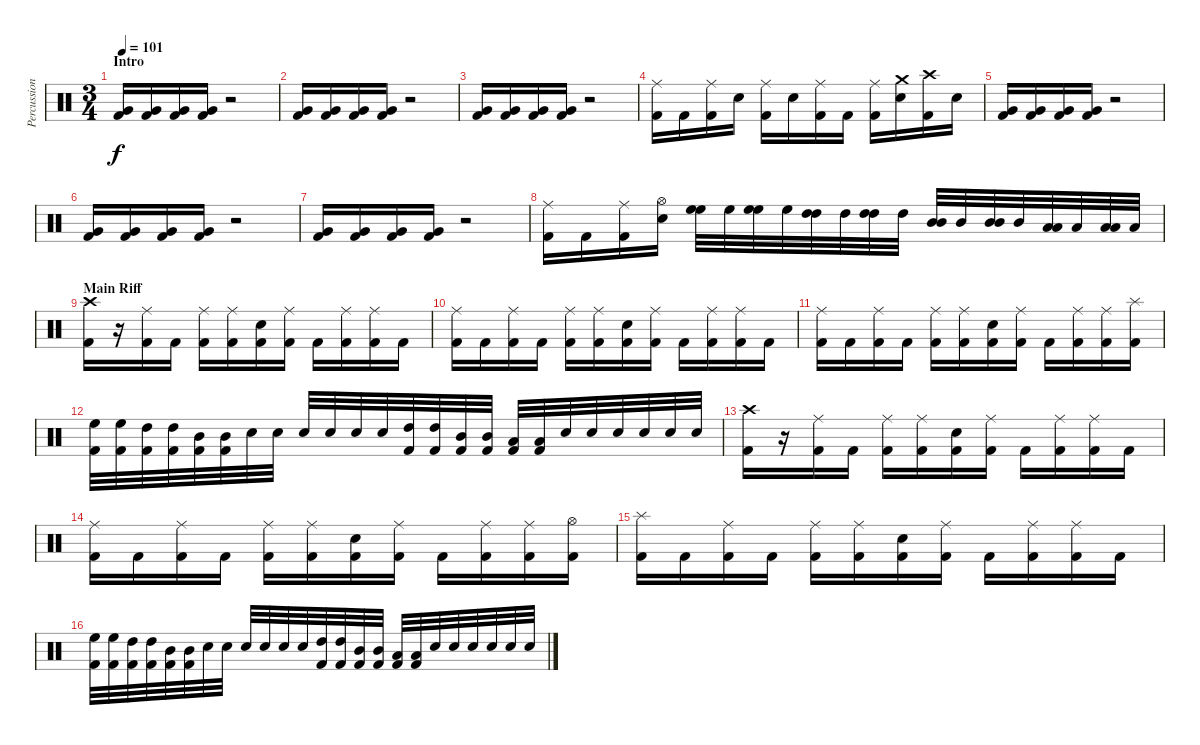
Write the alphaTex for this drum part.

\track ("Percussion" "Percussion") {instrument percussion}
\staff {score}
\articulation defaults
\ts (3 4)
\section ("" "Intro")
\tempo 101
\clef neutral
\ks c
("Very Low Tom (hit)" "Kick (hit) 2").16{dy f} ("Very Low Tom (hit)" "Kick (hit) 2").16 ("Very Low Tom (hit)" "Kick (hit) 2").16 ("Very Low Tom (hit)" "Kick (hit) 2").16 r.2 |
("Very Low Tom (hit)" "Kick (hit) 2").16 ("Very Low Tom (hit)" "Kick (hit) 2").16 ("Very Low Tom (hit)" "Kick (hit) 2").16 ("Very Low Tom (hit)" "Kick (hit) 2").16 r.2 |
("Very Low Tom (hit)" "Kick (hit) 2").16 ("Very Low Tom (hit)" "Kick (hit) 2").16 ("Very Low Tom (hit)" "Kick (hit) 2").16 ("Very Low Tom (hit)" "Kick (hit) 2").16 r.2 |
("Ride (middle)" "Kick (hit) 2").16 "Kick (hit) 2".16 ("Ride (middle)" "Kick (hit) 2").16 "Electric Snare (hit)".16 ("Ride (middle)" "Kick (hit) 2").16 "Electric Snare (hit)".16 ("Ride (middle)" "Kick (hit) 2").16 "Kick (hit) 2".16 ("Ride (middle)" "Kick (hit) 2").16 ("Crash medium (hit)" "Electric Snare (hit)").16 ("Crash high (hit)" "Kick (hit) 2").16 "Electric Snare (hit)".16 |
("Very Low Tom (hit)" "Kick (hit) 2").16 ("Very Low Tom (hit)" "Kick (hit) 2").16 ("Very Low Tom (hit)" "Kick (hit) 2").16 ("Very Low Tom (hit)" "Kick (hit) 2").16 r.2 |
("Very Low Tom (hit)" "Kick (hit) 2").16 ("Very Low Tom (hit)" "Kick (hit) 2").16 ("Very Low Tom (hit)" "Kick (hit) 2").16 ("Very Low Tom (hit)" "Kick (hit) 2").16 r.2 |
("Very Low Tom (hit)" "Kick (hit) 2").16 ("Very Low Tom (hit)" "Kick (hit) 2").16 ("Very Low Tom (hit)" "Kick (hit) 2").16 ("Very Low Tom (hit)" "Kick (hit) 2").16 r.2 |
("Ride (middle)" "Kick (hit) 2").16 "Kick (hit) 2".16 ("Ride (middle)" "Kick (hit) 2").16 ("Hi-Hat (open)" "Electric Snare (hit)").16 ("High Floor Tom (hit)" "High Floor Tom (hit)").32 "High Floor Tom (hit)".32 ("High Floor Tom (hit)" "High Floor Tom (hit)").32 "High Floor Tom (hit)".32 ("High Tom (hit)" "High Tom (hit)").32 "High Tom (hit)".32 ("High Tom (hit)" "High Tom (hit)").32 "High Tom (hit)".32 ("Mid Tom (hit)" "Mid Tom (hit)").32 "Mid Tom (hit)".32 ("Mid Tom (hit)" "Mid Tom (hit)").32 "Mid Tom (hit)".32 ("Low Tom (hit)" "Low Tom (hit)").32 "Low Tom (hit)".32 ("Low Tom (hit)" "Low Tom (hit)").32 "Low Tom (hit)".32 |
\section ("" "Main Riff")
("Crash high (hit)" "Kick (hit) 2").16 r.16 ("Ride (middle)" "Kick (hit) 2").16 "Kick (hit) 2".16 ("Ride (middle)" "Kick (hit) 2").16 ("Ride (middle)" "Kick (hit) 2").16 ("Electric Snare (hit)" "Kick (hit) 2").16 ("Ride (middle)" "Kick (hit) 2").16 "Kick (hit) 2".16 ("Ride (middle)" "Kick (hit) 2").16 ("Ride (middle)" "Kick (hit) 2").16 "Kick (hit) 2".16 |
("Ride (middle)" "Kick (hit) 2").16 "Kick (hit) 2".16 ("Ride (middle)" "Kick (hit) 2").16 "Kick (hit) 2".16 ("Ride (middle)" "Kick (hit) 2").16 ("Ride (middle)" "Kick (hit) 2").16 ("Electric Snare (hit)" "Kick (hit) 2").16 ("Ride (middle)" "Kick (hit) 2").16 "Kick (hit) 2".16 ("Ride (middle)" "Kick (hit) 2").16 ("Ride (middle)" "Kick (hit) 2").16 "Kick (hit) 2".16 |
("Ride (middle)" "Kick (hit) 2").16 "Kick (hit) 2".16 ("Ride (middle)" "Kick (hit) 2").16 "Kick (hit) 2".16 ("Ride (middle)" "Kick (hit) 2").16 ("Ride (middle)" "Kick (hit) 2").16 ("Electric Snare (hit)" "Kick (hit) 2").16 ("Ride (middle)" "Kick (hit) 2").16 "Kick (hit) 2".16 ("Ride (middle)" "Kick (hit) 2").16 ("Ride (middle)" "Kick (hit) 2").16 ("Splash (hit)" "Kick (hit) 2").16 |
("High Floor Tom (hit)" "Kick (hit) 2").32 ("High Floor Tom (hit)" "Kick (hit) 2").32 ("High Tom (hit)" "Kick (hit) 2").32 ("High Tom (hit)" "Kick (hit) 2").32 ("Mid Tom (hit)" "Kick (hit) 2").32 ("Mid Tom (hit)" "Kick (hit) 2").32 "Electric Snare (hit)".32 "Electric Snare (hit)".32 "Electric Snare (hit)".32 "Electric Snare (hit)".32 "Electric Snare (hit)".32 "Electric Snare (hit)".32 ("High Tom (hit)" "Kick (hit) 2").32 ("High Tom (hit)" "Kick (hit) 2").32 ("Mid Tom (hit)" "Kick (hit) 2").32 ("Mid Tom (hit)" "Kick (hit) 2").32 ("Low Tom (hit)" "Kick (hit) 2").32 ("Low Tom (hit)" "Kick (hit) 2").32 "Electric Snare (hit)".32 "Electric Snare (hit)".32 "Electric Snare (hit)".32 "Electric Snare (hit)".32 "Electric Snare (hit)".32 "Electric Snare (hit)".32 |
("Crash high (hit)" "Kick (hit) 2").16 r.16 ("Ride (middle)" "Kick (hit) 2").16 "Kick (hit) 2".16 ("Ride (middle)" "Kick (hit) 2").16 ("Ride (middle)" "Kick (hit) 2").16 ("Electric Snare (hit)" "Kick (hit) 2").16 ("Ride (middle)" "Kick (hit) 2").16 "Kick (hit) 2".16 ("Ride (middle)" "Kick (hit) 2").16 ("Ride (middle)" "Kick (hit) 2").16 "Kick (hit) 2".16 |
("Ride (middle)" "Kick (hit) 2").16 "Kick (hit) 2".16 ("Ride (middle)" "Kick (hit) 2").16 "Kick (hit) 2".16 ("Ride (middle)" "Kick (hit) 2").16 ("Ride (middle)" "Kick (hit) 2").16 ("Electric Snare (hit)" "Kick (hit) 2").16 ("Ride (middle)" "Kick (hit) 2").16 "Kick (hit) 2".16 ("Ride (middle)" "Kick (hit) 2").16 ("Ride (middle)" "Kick (hit) 2").16 ("Hi-Hat (open)" "Kick (hit) 2").16 |
("Splash (hit)" "Kick (hit) 2").16 "Kick (hit) 2".16 ("Ride (middle)" "Kick (hit) 2").16 "Kick (hit) 2".16 ("Ride (middle)" "Kick (hit) 2").16 ("Ride (middle)" "Kick (hit) 2").16 ("Electric Snare (hit)" "Kick (hit) 2").16 ("Ride (middle)" "Kick (hit) 2").16 "Kick (hit) 2".16 ("Ride (middle)" "Kick (hit) 2").16 ("Ride (middle)" "Kick (hit) 2").16 "Kick (hit) 2".16 |
("High Floor Tom (hit)" "Kick (hit) 2").32 ("High Floor Tom (hit)" "Kick (hit) 2").32 ("High Tom (hit)" "Kick (hit) 2").32 ("High Tom (hit)" "Kick (hit) 2").32 ("Mid Tom (hit)" "Kick (hit) 2").32 ("Mid Tom (hit)" "Kick (hit) 2").32 "Electric Snare (hit)".32 "Electric Snare (hit)".32 "Electric Snare (hit)".32 "Electric Snare (hit)".32 "Electric Snare (hit)".32 "Electric Snare (hit)".32 ("High Tom (hit)" "Kick (hit) 2").32 ("High Tom (hit)" "Kick (hit) 2").32 ("Mid Tom (hit)" "Kick (hit) 2").32 ("Mid Tom (hit)" "Kick (hit) 2").32 ("Low Tom (hit)" "Kick (hit) 2").32 ("Low Tom (hit)" "Kick (hit) 2").32 "Electric Snare (hit)".32 "Electric Snare (hit)".32 "Electric Snare (hit)".32 "Electric Snare (hit)".32 "Electric Snare (hit)".32 "Electric Snare (hit)".32
